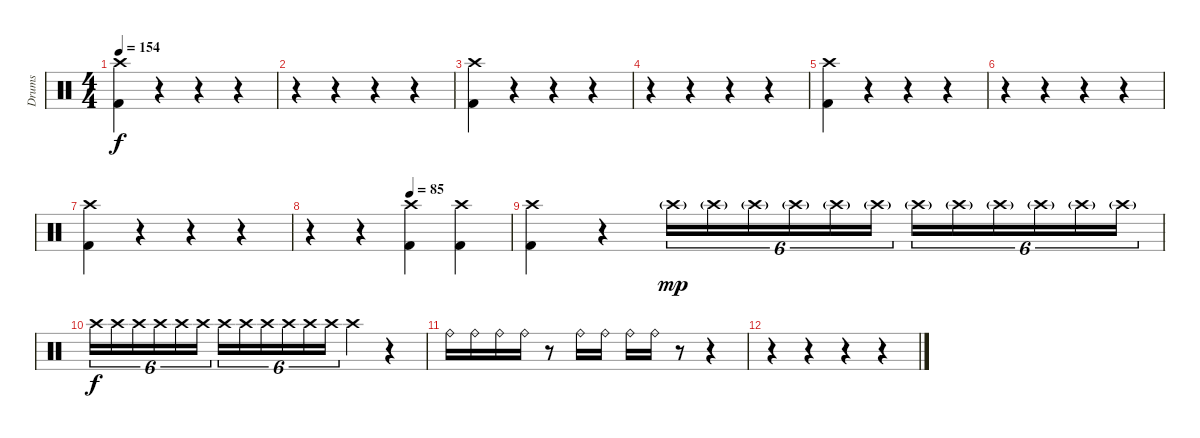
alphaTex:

\track ("Drums" "Drums") {instrument percussion}
\staff {score}
\articulation defaults
\ts (4 4)
\tempo 154
\clef neutral
\ks c
("Crash high (hit)" "Kick (hit) 2").4{dy f} r.4 r.4 r.4 |
r.4 r.4 r.4 r.4 |
("Crash high (hit)" "Kick (hit) 2").4 r.4 r.4 r.4 |
r.4 r.4 r.4 r.4 |
("Crash high (hit)" "Kick (hit) 2").4 r.4 r.4 r.4 |
r.4 r.4 r.4 r.4 |
("Crash high (hit)" "Kick (hit) 2").4 r.4 r.4 r.4 |
\tempo (85 0.5)
r.4 r.4 ("Crash high (hit)" "Kick (hit) 2").4 ("Crash high (hit)" "Kick (hit) 2").4 |
("Crash high (hit)" "Kick (hit) 2").4 r.4 "Crash high (hit)"{g}.16{tu (6 4) dy mp} "Crash high (hit)"{g}.16{tu (6 4)} "Crash high (hit)"{g}.16{tu (6 4)} "Crash high (hit)"{g}.16{tu (6 4)} "Crash high (hit)"{g}.16{tu (6 4)} "Crash high (hit)"{g}.16{tu (6 4)} "Crash high (hit)"{g}.16{tu (6 4)} "Crash high (hit)"{g}.16{tu (6 4)} "Crash high (hit)"{g}.16{tu (6 4)} "Crash high (hit)"{g}.16{tu (6 4)} "Crash high (hit)"{g}.16{tu (6 4)} "Crash high (hit)"{g}.16{tu (6 4)} |
"Crash high (hit)".16{tu (6 4) dy f} "Crash high (hit)".16{tu (6 4)} "Crash high (hit)".16{tu (6 4)} "Crash high (hit)".16{tu (6 4)} "Crash high (hit)".16{tu (6 4)} "Crash high (hit)".16{tu (6 4)} "Crash high (hit)".16{tu (6 4)} "Crash high (hit)".16{tu (6 4)} "Crash high (hit)".16{tu (6 4)} "Crash high (hit)".16{tu (6 4)} "Crash high (hit)".16{tu (6 4)} "Crash high (hit)".16{tu (6 4)} "Crash high (hit)".4 r.4 |
"Ride (bell)".16 "Ride (bell)".16 "Ride (bell)".16 "Ride (bell)".16 r.8 "Ride (bell)".16 "Ride (bell)".16 "Ride (bell)".16 "Ride (bell)".16 r.8 r.4 |
r.4 r.4 r.4 r.4
